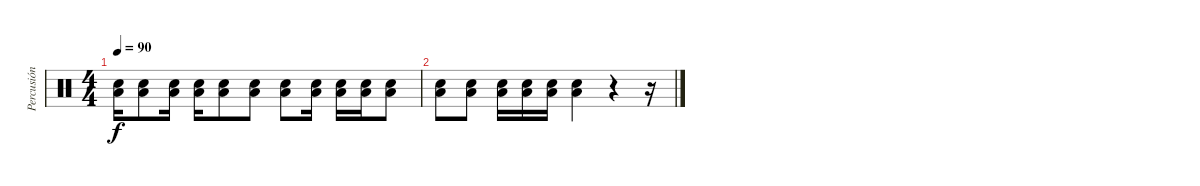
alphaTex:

\track ("Percusión" "Percusión") {instrument percussion}
\staff {score}
\articulation defaults
\ts (4 4)
\tempo 90
\clef neutral
\ks c
("Snare (hit) 2" "Low Floor Tom (hit)").16{dy f} ("Snare (hit) 2" "Low Floor Tom (hit)").8 ("Snare (hit) 2" "Low Floor Tom (hit)").16 ("Snare (hit) 2" "Low Floor Tom (hit)").16 ("Snare (hit) 2" "Low Floor Tom (hit)").8 ("Snare (hit) 2" "Low Floor Tom (hit)").8 ("Snare (hit) 2" "Low Floor Tom (hit)").8 ("Snare (hit) 2" "Low Floor Tom (hit)").16 ("Snare (hit) 2" "Low Floor Tom (hit)").16 ("Snare (hit) 2" "Low Floor Tom (hit)").16 ("Snare (hit) 2" "Low Floor Tom (hit)").8 |
("Snare (hit) 2" "Low Floor Tom (hit)").8 ("Snare (hit) 2" "Low Floor Tom (hit)").8 ("Snare (hit) 2" "Low Floor Tom (hit)").16 ("Snare (hit) 2" "Low Floor Tom (hit)").16 ("Snare (hit) 2" "Low Floor Tom (hit)").16 ("Snare (hit) 2" "Low Floor Tom (hit)").4 r.4 r.16
